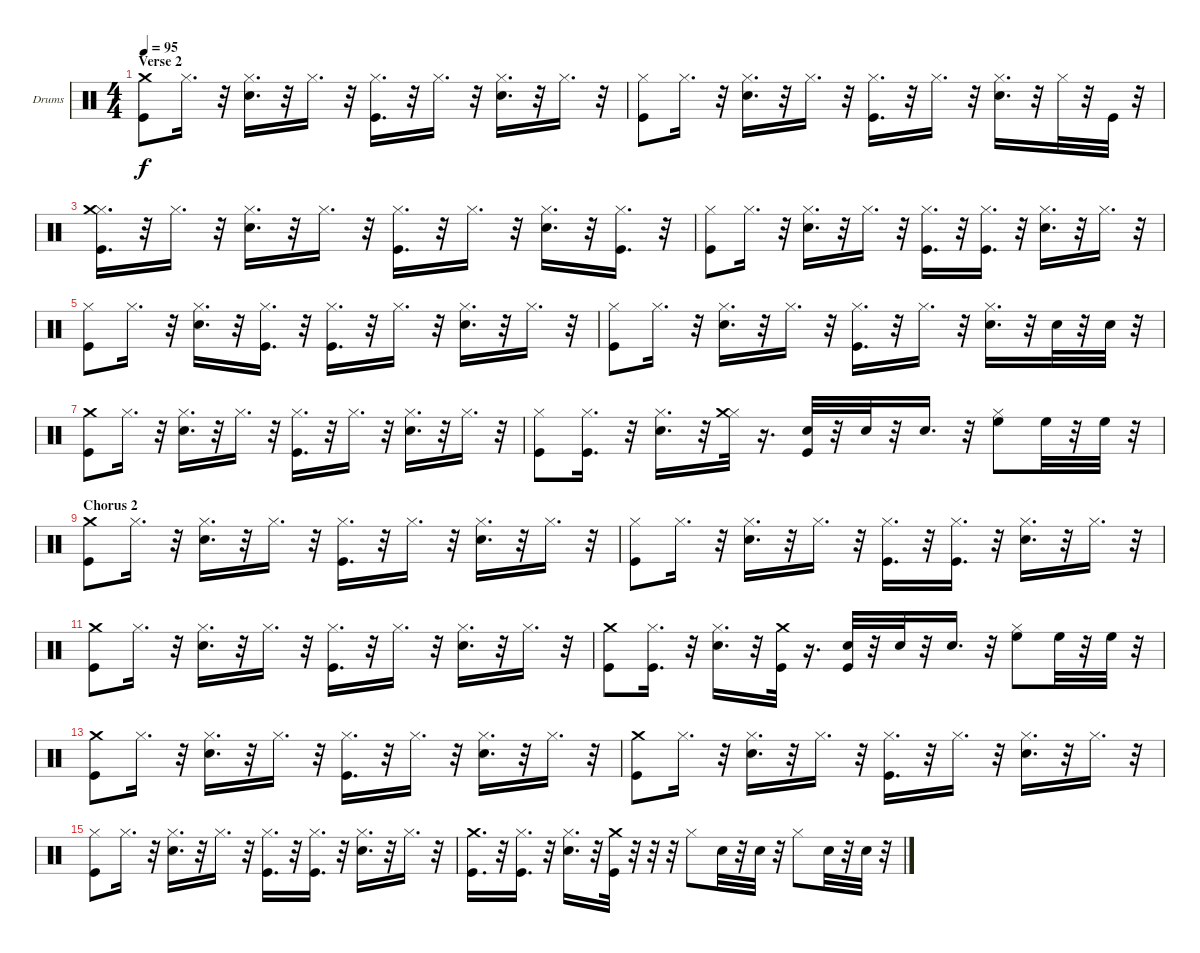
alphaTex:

\bracketExtendMode nobrackets
\firstSystemTrackNameOrientation horizontal
\otherSystemsTrackNameOrientation horizontal
\defaultBarNumberDisplay FirstOfSystem
\track ("Drumkit" "Drums") {instrument percussion}
\staff {score}
\articulation defaults
\ts (4 4)
\section ("" "Verse 2")
\tempo 95
\clef neutral
\scale
0.486692
\ks c
("Crash medium (hit)" "Kick (hit)").8{dy f} "Hi-Hat (closed)".16{d} r.32 ("Hi-Hat (closed)" "Snare (hit) 2").16{d} r.32 "Hi-Hat (closed)".16{d} r.32 ("Hi-Hat (closed)" "Kick (hit)").16{d} r.32 "Hi-Hat (closed)".16{d} r.32 ("Hi-Hat (closed)" "Snare (hit) 2").16{d} r.32 "Hi-Hat (closed)".16{d} r.32 |
\scale
0.513308 ("Hi-Hat (closed)" "Kick (hit)").8 "Hi-Hat (closed)".16{d} r.32 ("Hi-Hat (closed)" "Snare (hit) 2").16{d} r.32 "Hi-Hat (closed)".16{d} r.32 ("Hi-Hat (closed)" "Kick (hit)").16{d} r.32 "Hi-Hat (closed)".16{d} r.32 ("Hi-Hat (closed)" "Snare (hit) 2").16{d} r.32 "Hi-Hat (closed)".32 r.32 "Kick (hit)".32 r.32 |
\scale
0.507692 ("Hi-Hat (closed)" "Crash medium (hit)" "Kick (hit)").16{d} r.32 "Hi-Hat (closed)".16{d} r.32 ("Hi-Hat (closed)" "Snare (hit) 2").16{d} r.32 "Hi-Hat (closed)".16{d} r.32 ("Hi-Hat (closed)" "Kick (hit)").16{d} r.32 "Hi-Hat (closed)".16{d} r.32 ("Hi-Hat (closed)" "Snare (hit) 2").16{d} r.32 ("Hi-Hat (closed)" "Kick (hit)").16{d} r.32 |
\scale
0.492308 ("Hi-Hat (closed)" "Kick (hit)").8 "Hi-Hat (closed)".16{d} r.32 ("Hi-Hat (closed)" "Snare (hit) 2").16{d} r.32 "Hi-Hat (closed)".16{d} r.32 ("Hi-Hat (closed)" "Kick (hit)").16{d} r.32 ("Hi-Hat (closed)" "Kick (hit)").16{d} r.32 ("Hi-Hat (closed)" "Snare (hit) 2").16{d} r.32 "Hi-Hat (closed)".16{d} r.32 |
\scale
0.486692 ("Hi-Hat (closed)" "Kick (hit)").8 "Hi-Hat (closed)".16{d} r.32 ("Hi-Hat (closed)" "Snare (hit) 2").16{d} r.32 ("Hi-Hat (closed)" "Kick (hit)").16{d} r.32 ("Hi-Hat (closed)" "Kick (hit)").16{d} r.32 "Hi-Hat (closed)".16{d} r.32 ("Hi-Hat (closed)" "Snare (hit) 2").16{d} r.32 "Hi-Hat (closed)".16{d} r.32 |
\scale
0.513308 ("Hi-Hat (closed)" "Kick (hit)").8 "Hi-Hat (closed)".16{d} r.32 ("Hi-Hat (closed)" "Snare (hit) 2").16{d} r.32 "Hi-Hat (closed)".16{d} r.32 ("Hi-Hat (closed)" "Kick (hit)").16{d} r.32 "Hi-Hat (closed)".16{d} r.32 ("Hi-Hat (closed)" "Snare (hit) 2").16{d} r.32 "Snare (hit) 2".32 r.32 "Snare (hit) 2".32 r.32 |
\scale
0.387879 ("Crash medium (hit)" "Kick (hit)").8 "Hi-Hat (closed)".16{d} r.32 ("Hi-Hat (closed)" "Snare (hit) 2").16{d} r.32 "Hi-Hat (closed)".16{d} r.32 ("Hi-Hat (closed)" "Kick (hit)").16{d} r.32 "Hi-Hat (closed)".16{d} r.32 ("Hi-Hat (closed)" "Snare (hit) 2").16{d} r.32 "Hi-Hat (closed)".16{d} r.32 |
\scale
0.612121 ("Hi-Hat (closed)" "Kick (hit)").8 ("Hi-Hat (closed)" "Kick (hit)").16{d} r.32 ("Hi-Hat (closed)" "Snare (hit) 2").16{d} r.32 ("Hi-Hat (closed)" "Crash medium (hit)").32 r.16{d} ("Snare (hit) 2" "Kick (hit)").32 r.32 "Snare (hit) 2".32 r.32 "Snare (hit) 2".16{d} r.32 ("Hi-Hat (closed)" "High Floor Tom (hit)").8 "High Floor Tom (hit)".32 r.32 "High Floor Tom (hit)".32 r.32 |
\section ("" "Chorus 2")
\scale
0.5 ("Kick (hit)" "Crash medium (hit)").8 "Hi-Hat (closed)".16{d} r.32 ("Hi-Hat (closed)" "Snare (hit) 2").16{d} r.32 "Hi-Hat (closed)".16{d} r.32 ("Hi-Hat (closed)" "Kick (hit)").16{d} r.32 "Hi-Hat (closed)".16{d} r.32 ("Hi-Hat (closed)" "Snare (hit) 2").16{d} r.32 "Hi-Hat (closed)".16{d} r.32 |
\scale
0.5 ("Hi-Hat (closed)" "Kick (hit)").8 "Hi-Hat (closed)".16{d} r.32 ("Hi-Hat (closed)" "Snare (hit) 2").16{d} r.32 "Hi-Hat (closed)".16{d} r.32 ("Hi-Hat (closed)" "Kick (hit)").16{d} r.32 ("Hi-Hat (closed)" "Kick (hit)").16{d} r.32 ("Hi-Hat (closed)" "Snare (hit) 2").16{d} r.32 "Hi-Hat (closed)".16{d} r.32 |
\scale
0.481203 ("Kick (hit)" "Crash medium (hit)").8 "Hi-Hat (closed)".16{d} r.32 ("Hi-Hat (closed)" "Snare (hit) 2").16{d} r.32 "Hi-Hat (closed)".16{d} r.32 ("Hi-Hat (closed)" "Kick (hit)").16{d} r.32 "Hi-Hat (closed)".16{d} r.32 ("Hi-Hat (closed)" "Snare (hit) 2").16{d} r.32 "Hi-Hat (closed)".16{d} r.32 |
\scale
0.518797 ("Kick (hit)" "Crash medium (hit)").8 ("Hi-Hat (closed)" "Kick (hit)").16{d} r.32 ("Hi-Hat (closed)" "Snare (hit) 2").16{d} r.32 ("Kick (hit)" "Crash medium (hit)").32 r.16{d} ("Snare (hit) 2" "Kick (hit)").32 r.32 "Snare (hit) 2".32 r.32 "Snare (hit) 2".16{d} r.32 ("Hi-Hat (closed)" "High Floor Tom (hit)").8 "High Floor Tom (hit)".32 r.32 "High Floor Tom (hit)".32 r.32 |
\scale
0.5 ("Crash medium (hit)" "Kick (hit)").8 "Hi-Hat (closed)".16{d} r.32 ("Hi-Hat (closed)" "Snare (hit) 2").16{d} r.32 "Hi-Hat (closed)".16{d} r.32 ("Hi-Hat (closed)" "Kick (hit)").16{d} r.32 "Hi-Hat (closed)".16{d} r.32 ("Hi-Hat (closed)" "Snare (hit) 2").16{d} r.32 "Hi-Hat (closed)".16{d} r.32 |
\scale
0.5 ("Crash medium (hit)" "Kick (hit)").8 "Hi-Hat (closed)".16{d} r.32 ("Hi-Hat (closed)" "Snare (hit) 2").16{d} r.32 "Hi-Hat (closed)".16{d} r.32 ("Hi-Hat (closed)" "Kick (hit)").16{d} r.32 "Hi-Hat (closed)".16{d} r.32 ("Hi-Hat (closed)" "Snare (hit) 2").16{d} r.32 "Hi-Hat (closed)".16{d} r.32 |
\scale
0.468864 ("Hi-Hat (closed)" "Kick (hit)").8 "Hi-Hat (closed)".16{d} r.32 ("Hi-Hat (closed)" "Snare (hit) 2").16{d} r.32 "Hi-Hat (closed)".16{d} r.32 ("Hi-Hat (closed)" "Kick (hit)").16{d} r.32 ("Hi-Hat (closed)" "Kick (hit)").16{d} r.32 ("Hi-Hat (closed)" "Snare (hit) 2").16{d} r.32 "Hi-Hat (closed)".16{d} r.32 |
\scale
0.531136 ("Kick (hit)" "Crash medium (hit)").16{d} r.32 ("Kick (hit)" "Hi-Hat (closed)").16{d} r.32 ("Snare (hit) 2" "Hi-Hat (closed)").16{d} r.32 ("Kick (hit)" "Crash medium (hit)").32 r.32 r.32 r.32 "Hi-Hat (closed)".8 "Snare (hit) 2".32 r.32 "Snare (hit) 2".32 r.32 "Hi-Hat (closed)".8 "Snare (hit) 2".32 r.32 "Snare (hit) 2".32 r.32
